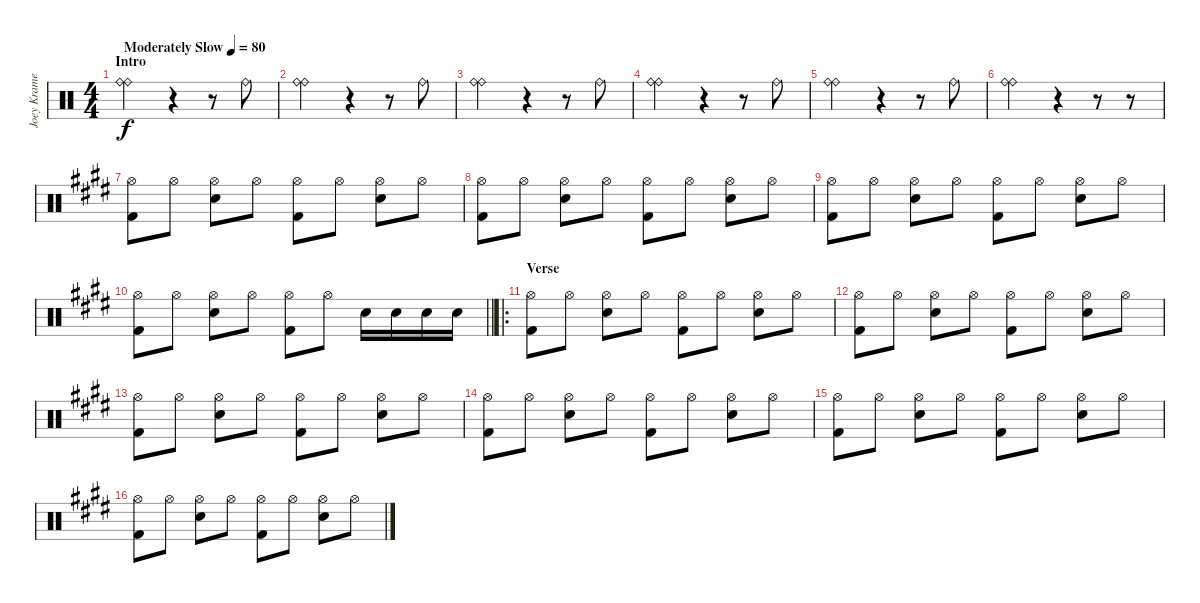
\track ("Joey Kramer (Percussion)" "Joey Krame") {instrument percussion}
\staff {score}
\articulation defaults
\ts (4 4)
\section ("" "Intro")
\tempo (80 "Moderately Slow")
\clef neutral
\ks c
("Ride (bell)" "Ride (bell)").2{dy f} r.4 r.8 "Ride (bell)".8 |
("Ride (bell)" "Ride (bell)").2 r.4 r.8 "Ride (bell)".8 |
("Ride (bell)" "Ride (bell)").2 r.4 r.8 "Ride (bell)".8 |
("Ride (bell)" "Ride (bell)").2 r.4 r.8 "Ride (bell)".8 |
("Ride (bell)" "Ride (bell)").2 r.4 r.8 "Ride (bell)".8 |
("Ride (bell)" "Ride (bell)").2 r.4 r.8 r.8 |
\ks e
("Hi-Hat (open)" "Kick (hit) 2").8 "Hi-Hat (open)".8 ("Hi-Hat (open)" "Electric Snare (hit)").8 "Hi-Hat (open)".8 ("Hi-Hat (open)" "Kick (hit) 2").8 "Hi-Hat (open)".8 ("Hi-Hat (open)" "Electric Snare (hit)").8 "Hi-Hat (open)".8 |
("Hi-Hat (open)" "Kick (hit) 2").8 "Hi-Hat (open)".8 ("Hi-Hat (open)" "Electric Snare (hit)").8 "Hi-Hat (open)".8 ("Hi-Hat (open)" "Kick (hit) 2").8 "Hi-Hat (open)".8 ("Hi-Hat (open)" "Electric Snare (hit)").8 "Hi-Hat (open)".8 |
("Hi-Hat (open)" "Kick (hit) 2").8 "Hi-Hat (open)".8 ("Hi-Hat (open)" "Electric Snare (hit)").8 "Hi-Hat (open)".8 ("Hi-Hat (open)" "Kick (hit) 2").8 "Hi-Hat (open)".8 ("Hi-Hat (open)" "Electric Snare (hit)").8 "Hi-Hat (open)".8 |
\barLineRight lightlight
("Hi-Hat (open)" "Kick (hit) 2").8 "Hi-Hat (open)".8 ("Hi-Hat (open)" "Electric Snare (hit)").8 "Hi-Hat (open)".8 ("Hi-Hat (open)" "Kick (hit) 2").8 "Hi-Hat (open)".8 "Electric Snare (hit)".16 "Electric Snare (hit)".16 "Electric Snare (hit)".16 "Electric Snare (hit)".16 |
\ro
\section ("" "Verse")
("Hi-Hat (open)" "Kick (hit) 2").8 "Hi-Hat (open)".8 ("Hi-Hat (open)" "Electric Snare (hit)").8 "Hi-Hat (open)".8 ("Hi-Hat (open)" "Kick (hit) 2").8 "Hi-Hat (open)".8 ("Hi-Hat (open)" "Electric Snare (hit)").8 "Hi-Hat (open)".8 |
("Hi-Hat (open)" "Kick (hit) 2").8 "Hi-Hat (open)".8 ("Hi-Hat (open)" "Electric Snare (hit)").8 "Hi-Hat (open)".8 ("Hi-Hat (open)" "Kick (hit) 2").8 "Hi-Hat (open)".8 ("Hi-Hat (open)" "Electric Snare (hit)").8 "Hi-Hat (open)".8 |
("Hi-Hat (open)" "Kick (hit) 2").8 "Hi-Hat (open)".8 ("Hi-Hat (open)" "Electric Snare (hit)").8 "Hi-Hat (open)".8 ("Hi-Hat (open)" "Kick (hit) 2").8 "Hi-Hat (open)".8 ("Hi-Hat (open)" "Electric Snare (hit)").8 "Hi-Hat (open)".8 |
("Hi-Hat (open)" "Kick (hit) 2").8 "Hi-Hat (open)".8 ("Hi-Hat (open)" "Electric Snare (hit)").8 "Hi-Hat (open)".8 ("Hi-Hat (open)" "Kick (hit) 2").8 "Hi-Hat (open)".8 ("Hi-Hat (open)" "Electric Snare (hit)").8 "Hi-Hat (open)".8 |
("Hi-Hat (open)" "Kick (hit) 2").8 "Hi-Hat (open)".8 ("Hi-Hat (open)" "Electric Snare (hit)").8 "Hi-Hat (open)".8 ("Hi-Hat (open)" "Kick (hit) 2").8 "Hi-Hat (open)".8 ("Hi-Hat (open)" "Electric Snare (hit)").8 "Hi-Hat (open)".8 |
("Hi-Hat (open)" "Kick (hit) 2").8 "Hi-Hat (open)".8 ("Hi-Hat (open)" "Electric Snare (hit)").8 "Hi-Hat (open)".8 ("Hi-Hat (open)" "Kick (hit) 2").8 "Hi-Hat (open)".8 ("Hi-Hat (open)" "Electric Snare (hit)").8 "Hi-Hat (open)".8
